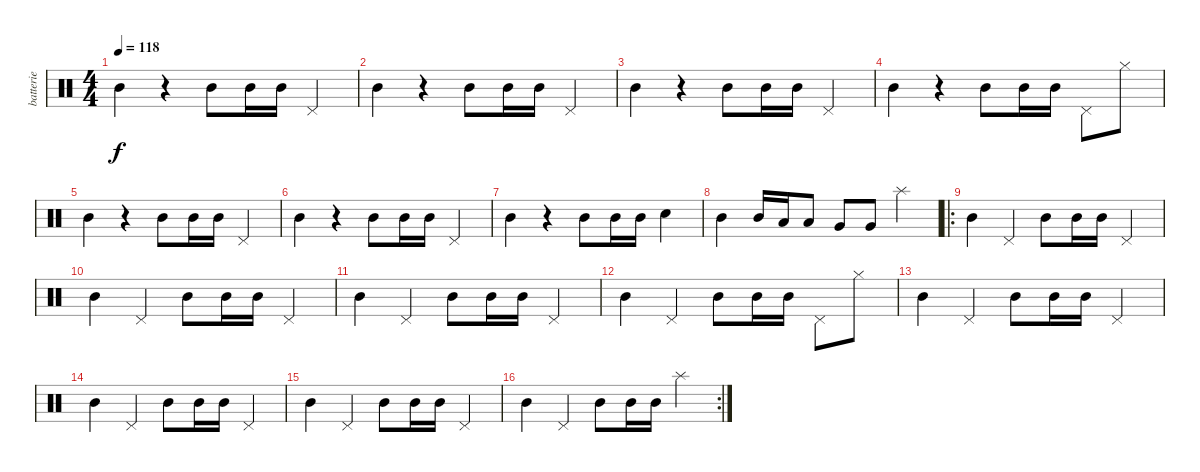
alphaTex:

\track ("batterie" "batterie") {instrument percussion}
\staff {score}
\articulation defaults
\ts (4 4)
\tempo 118
\clef neutral
\ks c "Mid Tom (hit)".4{dy f}
r.4 "Mid Tom (hit)".8 "Mid Tom (hit)".16 "Mid Tom (hit)".16 "Pedal Hi-Hat (hit)".4 |
"Mid Tom (hit)".4 r.4 "Mid Tom (hit)".8 "Mid Tom (hit)".16 "Mid Tom (hit)".16 "Pedal Hi-Hat (hit)".4 |
"Mid Tom (hit)".4 r.4 "Mid Tom (hit)".8 "Mid Tom (hit)".16 "Mid Tom (hit)".16 "Pedal Hi-Hat (hit)".4 |
"Mid Tom (hit)".4 r.4 "Mid Tom (hit)".8 "Mid Tom (hit)".16 "Mid Tom (hit)".16 "Pedal Hi-Hat (hit)".8 "Hi-Hat (closed)".8 |
"Mid Tom (hit)".4 r.4 "Mid Tom (hit)".8 "Mid Tom (hit)".16 "Mid Tom (hit)".16 "Pedal Hi-Hat (hit)".4 |
"Mid Tom (hit)".4 r.4 "Mid Tom (hit)".8 "Mid Tom (hit)".16 "Mid Tom (hit)".16 "Pedal Hi-Hat (hit)".4 |
"Mid Tom (hit)".4 r.4 "Mid Tom (hit)".8 "Mid Tom (hit)".16 "Mid Tom (hit)".16 "Electric Snare (hit)".4 |
"Mid Tom (hit)".4 "Mid Tom (hit)".16 "Low Tom (hit)".16 "Low Tom (hit)".8 "Very Low Tom (hit)".8 "Very Low Tom (hit)".8 "Splash (hit)".4 |
\ro "Mid Tom (hit)".4 "Pedal Hi-Hat (hit)".4 "Mid Tom (hit)".8 "Mid Tom (hit)".16 "Mid Tom (hit)".16 "Pedal Hi-Hat (hit)".4
|
"Mid Tom (hit)".4 "Pedal Hi-Hat (hit)".4 "Mid Tom (hit)".8 "Mid Tom (hit)".16 "Mid Tom (hit)".16 "Pedal Hi-Hat (hit)".4 |
"Mid Tom (hit)".4 "Pedal Hi-Hat (hit)".4 "Mid Tom (hit)".8 "Mid Tom (hit)".16 "Mid Tom (hit)".16 "Pedal Hi-Hat (hit)".4 |
"Mid Tom (hit)".4 "Pedal Hi-Hat (hit)".4 "Mid Tom (hit)".8 "Mid Tom (hit)".16 "Mid Tom (hit)".16 "Pedal Hi-Hat (hit)".8 "Hi-Hat (closed)".8 |
"Mid Tom (hit)".4 "Pedal Hi-Hat (hit)".4 "Mid Tom (hit)".8 "Mid Tom (hit)".16 "Mid Tom (hit)".16 "Pedal Hi-Hat (hit)".4 |
"Mid Tom (hit)".4 "Pedal Hi-Hat (hit)".4 "Mid Tom (hit)".8 "Mid Tom (hit)".16 "Mid Tom (hit)".16 "Pedal Hi-Hat (hit)".4 |
"Mid Tom (hit)".4 "Pedal Hi-Hat (hit)".4 "Mid Tom (hit)".8 "Mid Tom (hit)".16 "Mid Tom (hit)".16 "Pedal Hi-Hat (hit)".4 |
\rc 2 "Mid Tom (hit)".4 "Pedal Hi-Hat (hit)".4 "Mid Tom (hit)".8 "Mid Tom (hit)".16 "Mid Tom (hit)".16 "Splash (hit)".4
